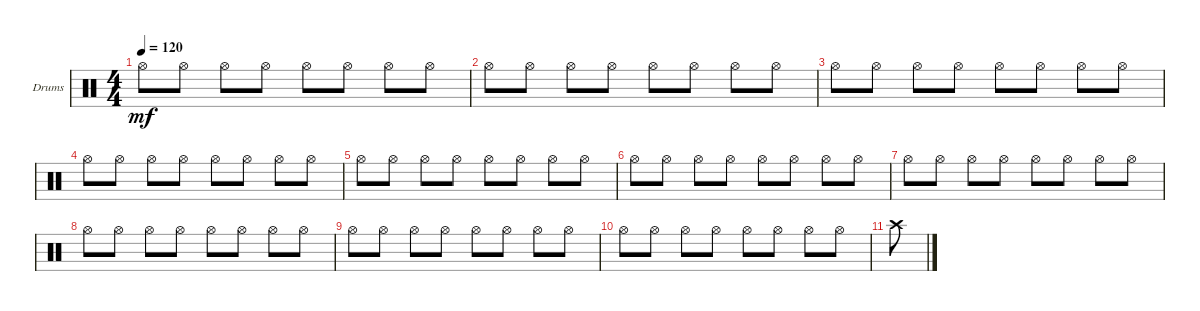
\defaultSystemsLayout 4
\bracketExtendMode groupsimilarinstruments
\firstSystemTrackNameOrientation horizontal
\otherSystemsTrackNameOrientation horizontal
\track ("Drumkit" "Drums") {instrument percussion}
\staff {score}
\articulation defaults
\ts (4 4)
\tempo 120
\clef neutral
\ks c "Hi-Hat (open)".8{dy mf} "Hi-Hat (open)".8 "Hi-Hat (open)".8 "Hi-Hat (open)".8 "Hi-Hat (open)".8 "Hi-Hat (open)".8 "Hi-Hat (open)".8 "Hi-Hat (open)".8
|
"Hi-Hat (open)".8 "Hi-Hat (open)".8 "Hi-Hat (open)".8 "Hi-Hat (open)".8 "Hi-Hat (open)".8 "Hi-Hat (open)".8 "Hi-Hat (open)".8 "Hi-Hat (open)".8 |
"Hi-Hat (open)".8 "Hi-Hat (open)".8 "Hi-Hat (open)".8 "Hi-Hat (open)".8 "Hi-Hat (open)".8 "Hi-Hat (open)".8 "Hi-Hat (open)".8 "Hi-Hat (open)".8 |
"Hi-Hat (open)".8 "Hi-Hat (open)".8 "Hi-Hat (open)".8 "Hi-Hat (open)".8 "Hi-Hat (open)".8 "Hi-Hat (open)".8 "Hi-Hat (open)".8 "Hi-Hat (open)".8 |
"Hi-Hat (open)".8 "Hi-Hat (open)".8 "Hi-Hat (open)".8 "Hi-Hat (open)".8 "Hi-Hat (open)".8 "Hi-Hat (open)".8 "Hi-Hat (open)".8 "Hi-Hat (open)".8 |
"Hi-Hat (open)".8 "Hi-Hat (open)".8 "Hi-Hat (open)".8 "Hi-Hat (open)".8 "Hi-Hat (open)".8 "Hi-Hat (open)".8 "Hi-Hat (open)".8 "Hi-Hat (open)".8 |
"Hi-Hat (open)".8 "Hi-Hat (open)".8 "Hi-Hat (open)".8 "Hi-Hat (open)".8 "Hi-Hat (open)".8 "Hi-Hat (open)".8 "Hi-Hat (open)".8 "Hi-Hat (open)".8 |
"Hi-Hat (open)".8 "Hi-Hat (open)".8 "Hi-Hat (open)".8 "Hi-Hat (open)".8 "Hi-Hat (open)".8 "Hi-Hat (open)".8 "Hi-Hat (open)".8 "Hi-Hat (open)".8 |
"Hi-Hat (open)".8 "Hi-Hat (open)".8 "Hi-Hat (open)".8 "Hi-Hat (open)".8 "Hi-Hat (open)".8 "Hi-Hat (open)".8 "Hi-Hat (open)".8 "Hi-Hat (open)".8 |
"Hi-Hat (open)".8 "Hi-Hat (open)".8 "Hi-Hat (open)".8 "Hi-Hat (open)".8 "Hi-Hat (open)".8 "Hi-Hat (open)".8 "Hi-Hat (open)".8 "Hi-Hat (open)".8 |
"Crash high (hit)".8
